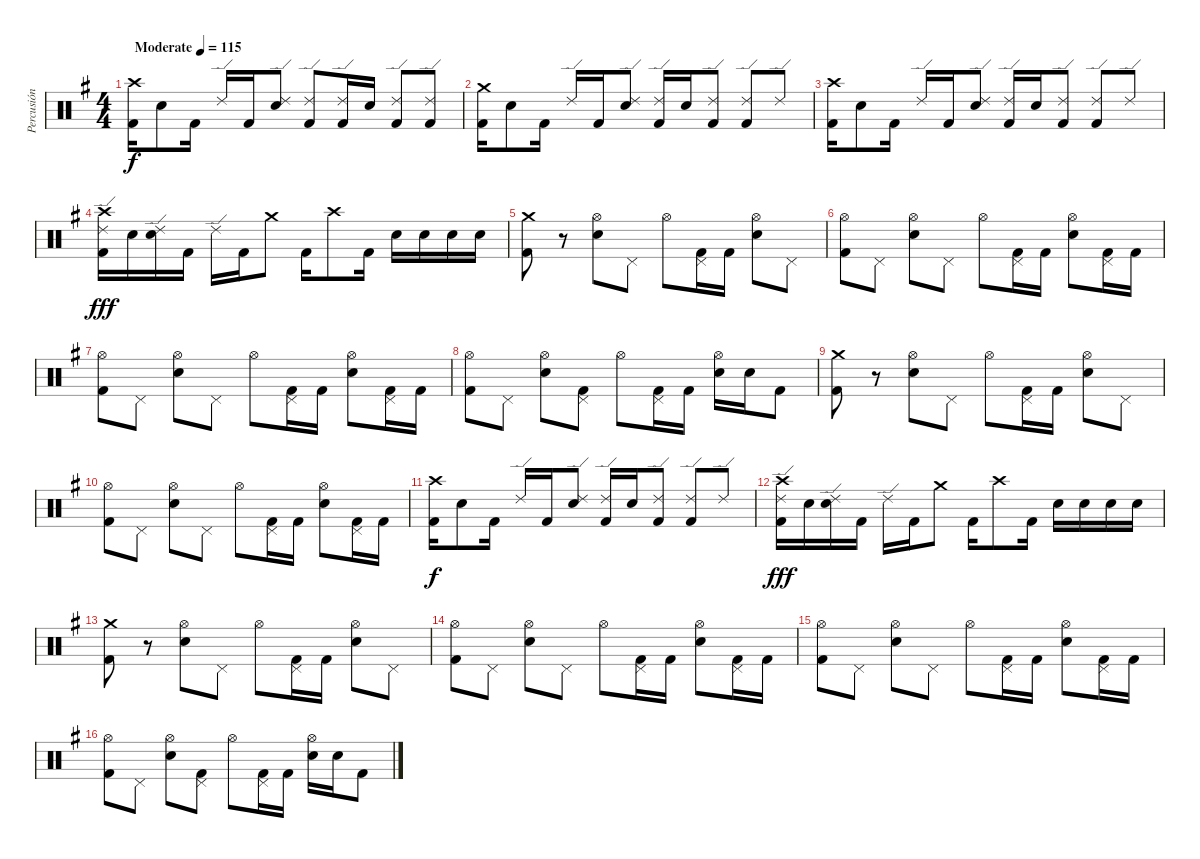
\track ("Percusión" "Percusión") {instrument percussion}
\staff {score}
\articulation defaults
\ts (4 4)
\tempo (115 "Moderate")
\clef neutral
\ks g
("Crash high (hit)" "Kick (hit) 2").16{dy f} "Electric Snare (hit)".8 "Kick (hit) 2".16 "Ride (edge) 2".16 "Kick (hit) 2".16 ("Ride (edge) 2" "Electric Snare (hit)").8 ("Ride (edge) 2" "Kick (hit) 2").8 ("Ride (edge) 2" "Kick (hit) 2").16 "Electric Snare (hit)".16 ("Ride (edge) 2" "Kick (hit) 2").8 ("Ride (edge) 2" "Kick (hit) 2").8 |
("Crash medium (hit)" "Kick (hit) 2").16 "Electric Snare (hit)".8 "Kick (hit) 2".16 "Ride (edge) 2".16 "Kick (hit) 2".16 ("Ride (edge) 2" "Electric Snare (hit)").8 ("Ride (edge) 2" "Kick (hit) 2").16 "Electric Snare (hit)".16 ("Ride (edge) 2" "Kick (hit) 2").8 ("Ride (edge) 2" "Kick (hit) 2").8 "Ride (edge) 2".8 |
("Crash high (hit)" "Kick (hit) 2").16 "Electric Snare (hit)".8 "Kick (hit) 2".16 "Ride (edge) 2".16 "Kick (hit) 2".16 ("Ride (edge) 2" "Electric Snare (hit)").8 ("Ride (edge) 2" "Kick (hit) 2").16 "Electric Snare (hit)".16 ("Ride (edge) 2" "Kick (hit) 2").8 ("Ride (edge) 2" "Kick (hit) 2").8 "Ride (edge) 2".8 |
("Crash high (hit)" "Ride (edge) 2" "Kick (hit) 2").16{dy fff} "Electric Snare (hit)".16 ("Ride (edge) 2" "Electric Snare (hit)").16 "Kick (hit) 2".16 "Ride (edge) 2".16 "Kick (hit) 2".16 "Crash medium (hit)".8 "Kick (hit) 2".16 "Crash high (hit)".8 "Kick (hit) 2".16 "Electric Snare (hit)".16 "Electric Snare (hit)".16 "Electric Snare (hit)".16 "Electric Snare (hit)".16 |
("Crash medium (hit)" "Kick (hit) 2").8 r.8 ("Hi-Hat (open)" "Electric Snare (hit)").8 "Pedal Hi-Hat (hit)".8 "Hi-Hat (open)".8 ("Pedal Hi-Hat (hit)" "Kick (hit) 2").16 "Kick (hit) 2".16 ("Hi-Hat (open)" "Electric Snare (hit)").8 "Pedal Hi-Hat (hit)".8 |
("Hi-Hat (open)" "Kick (hit) 2").8 "Pedal Hi-Hat (hit)".8 ("Hi-Hat (open)" "Electric Snare (hit)").8 "Pedal Hi-Hat (hit)".8 "Hi-Hat (open)".8 ("Pedal Hi-Hat (hit)" "Kick (hit) 2").16 "Kick (hit) 2".16 ("Hi-Hat (open)" "Electric Snare (hit)").8 ("Pedal Hi-Hat (hit)" "Kick (hit) 2").16 "Kick (hit) 2".16 |
("Hi-Hat (open)" "Kick (hit) 2").8 "Pedal Hi-Hat (hit)".8 ("Hi-Hat (open)" "Electric Snare (hit)").8 "Pedal Hi-Hat (hit)".8 "Hi-Hat (open)".8 ("Pedal Hi-Hat (hit)" "Kick (hit) 2").16 "Kick (hit) 2".16 ("Hi-Hat (open)" "Electric Snare (hit)").8 ("Pedal Hi-Hat (hit)" "Kick (hit) 2").16 "Kick (hit) 2".16 |
("Hi-Hat (open)" "Kick (hit) 2").8 "Pedal Hi-Hat (hit)".8 ("Hi-Hat (open)" "Electric Snare (hit)").8 ("Pedal Hi-Hat (hit)" "Kick (hit) 2").8 "Hi-Hat (open)".8 ("Pedal Hi-Hat (hit)" "Kick (hit) 2").16 "Kick (hit) 2".16 ("Hi-Hat (open)" "Electric Snare (hit)").16 "Electric Snare (hit)".16 "Kick (hit) 2".8 |
("Crash medium (hit)" "Kick (hit) 2").8 r.8 ("Hi-Hat (open)" "Electric Snare (hit)").8 "Pedal Hi-Hat (hit)".8 "Hi-Hat (open)".8 ("Pedal Hi-Hat (hit)" "Kick (hit) 2").16 "Kick (hit) 2".16 ("Hi-Hat (open)" "Electric Snare (hit)").8 "Pedal Hi-Hat (hit)".8 |
("Hi-Hat (open)" "Kick (hit) 2").8 "Pedal Hi-Hat (hit)".8 ("Hi-Hat (open)" "Electric Snare (hit)").8 "Pedal Hi-Hat (hit)".8 "Hi-Hat (open)".8 ("Pedal Hi-Hat (hit)" "Kick (hit) 2").16 "Kick (hit) 2".16 ("Hi-Hat (open)" "Electric Snare (hit)").8 ("Pedal Hi-Hat (hit)" "Kick (hit) 2").16 "Kick (hit) 2".16 |
("Crash high (hit)" "Kick (hit) 2").16{dy f} "Electric Snare (hit)".8 "Kick (hit) 2".16 "Ride (edge) 2".16 "Kick (hit) 2".16 ("Ride (edge) 2" "Electric Snare (hit)").8 ("Ride (edge) 2" "Kick (hit) 2").16 "Electric Snare (hit)".16 ("Ride (edge) 2" "Kick (hit) 2").8 ("Ride (edge) 2" "Kick (hit) 2").8 "Ride (edge) 2".8 |
("Crash high (hit)" "Ride (edge) 2" "Kick (hit) 2").16{dy fff} "Electric Snare (hit)".16 ("Ride (edge) 2" "Electric Snare (hit)").16 "Kick (hit) 2".16 "Ride (edge) 2".16 "Kick (hit) 2".16 "Crash medium (hit)".8 "Kick (hit) 2".16 "Crash high (hit)".8 "Kick (hit) 2".16 "Electric Snare (hit)".16 "Electric Snare (hit)".16 "Electric Snare (hit)".16 "Electric Snare (hit)".16 |
("Crash medium (hit)" "Kick (hit) 2").8 r.8 ("Hi-Hat (open)" "Electric Snare (hit)").8 "Pedal Hi-Hat (hit)".8 "Hi-Hat (open)".8 ("Pedal Hi-Hat (hit)" "Kick (hit) 2").16 "Kick (hit) 2".16 ("Hi-Hat (open)" "Electric Snare (hit)").8 "Pedal Hi-Hat (hit)".8 |
("Hi-Hat (open)" "Kick (hit) 2").8 "Pedal Hi-Hat (hit)".8 ("Hi-Hat (open)" "Electric Snare (hit)").8 "Pedal Hi-Hat (hit)".8 "Hi-Hat (open)".8 ("Pedal Hi-Hat (hit)" "Kick (hit) 2").16 "Kick (hit) 2".16 ("Hi-Hat (open)" "Electric Snare (hit)").8 ("Pedal Hi-Hat (hit)" "Kick (hit) 2").16 "Kick (hit) 2".16 |
("Hi-Hat (open)" "Kick (hit) 2").8 "Pedal Hi-Hat (hit)".8 ("Hi-Hat (open)" "Electric Snare (hit)").8 "Pedal Hi-Hat (hit)".8 "Hi-Hat (open)".8 ("Pedal Hi-Hat (hit)" "Kick (hit) 2").16 "Kick (hit) 2".16 ("Hi-Hat (open)" "Electric Snare (hit)").8 ("Pedal Hi-Hat (hit)" "Kick (hit) 2").16 "Kick (hit) 2".16 |
("Hi-Hat (open)" "Kick (hit) 2").8 "Pedal Hi-Hat (hit)".8 ("Hi-Hat (open)" "Electric Snare (hit)").8 ("Pedal Hi-Hat (hit)" "Kick (hit) 2").8 "Hi-Hat (open)".8 ("Pedal Hi-Hat (hit)" "Kick (hit) 2").16 "Kick (hit) 2".16 ("Hi-Hat (open)" "Electric Snare (hit)").16 "Electric Snare (hit)".16 "Kick (hit) 2".8
